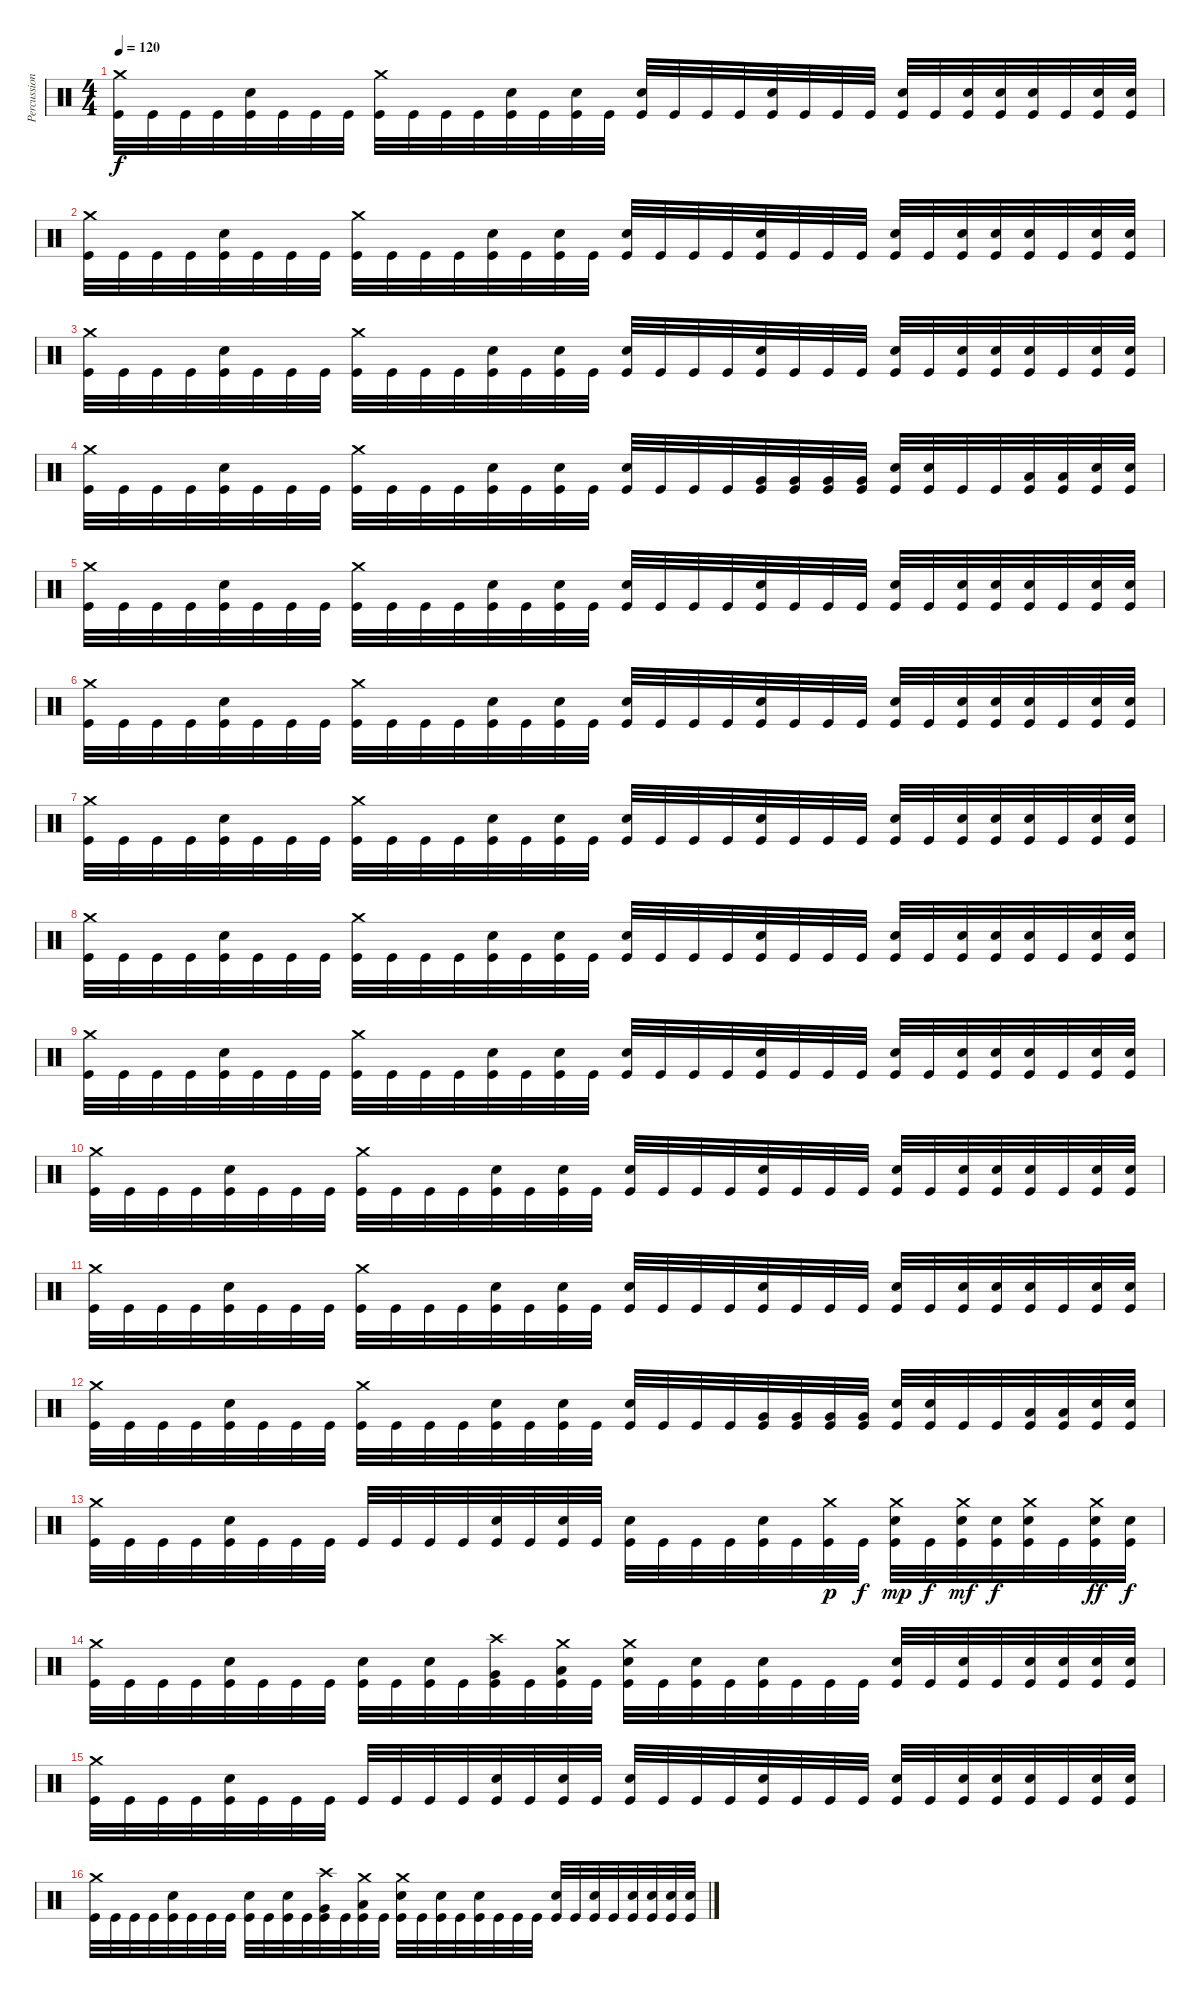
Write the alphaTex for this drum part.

\track ("Percussion" "Percussion") {instrument percussion}
\staff {score}
\articulation defaults
\ts (4 4)
\tempo 120
\clef neutral
\ks c
("Crash medium (hit)" "Kick (hit)").32{dy f} "Kick (hit)".32 "Kick (hit)".32 "Kick (hit)".32 ("Electric Snare (hit)" "Kick (hit)").32 "Kick (hit)".32 "Kick (hit)".32 "Kick (hit)".32 ("Crash medium (hit)" "Kick (hit)").32 "Kick (hit)".32 "Kick (hit)".32 "Kick (hit)".32 ("Electric Snare (hit)" "Kick (hit)").32 "Kick (hit)".32 ("Electric Snare (hit)" "Kick (hit)").32 "Kick (hit)".32 ("Electric Snare (hit)" "Kick (hit)").32 "Kick (hit)".32 "Kick (hit)".32 "Kick (hit)".32 ("Electric Snare (hit)" "Kick (hit)").32 "Kick (hit)".32 "Kick (hit)".32 "Kick (hit)".32 ("Electric Snare (hit)" "Kick (hit)").32 "Kick (hit)".32 ("Electric Snare (hit)" "Kick (hit)").32 ("Electric Snare (hit)" "Kick (hit)").32 ("Electric Snare (hit)" "Kick (hit)").32 "Kick (hit)".32 ("Electric Snare (hit)" "Kick (hit)").32 ("Electric Snare (hit)" "Kick (hit)").32 |
("Crash medium (hit)" "Kick (hit)").32 "Kick (hit)".32 "Kick (hit)".32 "Kick (hit)".32 ("Electric Snare (hit)" "Kick (hit)").32 "Kick (hit)".32 "Kick (hit)".32 "Kick (hit)".32 ("Crash medium (hit)" "Kick (hit)").32 "Kick (hit)".32 "Kick (hit)".32 "Kick (hit)".32 ("Electric Snare (hit)" "Kick (hit)").32 "Kick (hit)".32 ("Electric Snare (hit)" "Kick (hit)").32 "Kick (hit)".32 ("Electric Snare (hit)" "Kick (hit)").32 "Kick (hit)".32 "Kick (hit)".32 "Kick (hit)".32 ("Electric Snare (hit)" "Kick (hit)").32 "Kick (hit)".32 "Kick (hit)".32 "Kick (hit)".32 ("Electric Snare (hit)" "Kick (hit)").32 "Kick (hit)".32 ("Electric Snare (hit)" "Kick (hit)").32 ("Electric Snare (hit)" "Kick (hit)").32 ("Electric Snare (hit)" "Kick (hit)").32 "Kick (hit)".32 ("Electric Snare (hit)" "Kick (hit)").32 ("Electric Snare (hit)" "Kick (hit)").32 |
("Crash medium (hit)" "Kick (hit)").32 "Kick (hit)".32 "Kick (hit)".32 "Kick (hit)".32 ("Electric Snare (hit)" "Kick (hit)").32 "Kick (hit)".32 "Kick (hit)".32 "Kick (hit)".32 ("Crash medium (hit)" "Kick (hit)").32 "Kick (hit)".32 "Kick (hit)".32 "Kick (hit)".32 ("Electric Snare (hit)" "Kick (hit)").32 "Kick (hit)".32 ("Electric Snare (hit)" "Kick (hit)").32 "Kick (hit)".32 ("Electric Snare (hit)" "Kick (hit)").32 "Kick (hit)".32 "Kick (hit)".32 "Kick (hit)".32 ("Electric Snare (hit)" "Kick (hit)").32 "Kick (hit)".32 "Kick (hit)".32 "Kick (hit)".32 ("Electric Snare (hit)" "Kick (hit)").32 "Kick (hit)".32 ("Electric Snare (hit)" "Kick (hit)").32 ("Electric Snare (hit)" "Kick (hit)").32 ("Electric Snare (hit)" "Kick (hit)").32 "Kick (hit)".32 ("Electric Snare (hit)" "Kick (hit)").32 ("Electric Snare (hit)" "Kick (hit)").32 |
("Crash medium (hit)" "Kick (hit)").32 "Kick (hit)".32 "Kick (hit)".32 "Kick (hit)".32 ("Electric Snare (hit)" "Kick (hit)").32 "Kick (hit)".32 "Kick (hit)".32 "Kick (hit)".32 ("Crash medium (hit)" "Kick (hit)").32 "Kick (hit)".32 "Kick (hit)".32 "Kick (hit)".32 ("Electric Snare (hit)" "Kick (hit)").32 "Kick (hit)".32 ("Electric Snare (hit)" "Kick (hit)").32 "Kick (hit)".32 ("Electric Snare (hit)" "Kick (hit)").32 "Kick (hit)".32 "Kick (hit)".32 "Kick (hit)".32 ("Very Low Tom (hit)" "Kick (hit)").32 ("Very Low Tom (hit)" "Kick (hit)").32 ("Very Low Tom (hit)" "Kick (hit)").32 ("Very Low Tom (hit)" "Kick (hit)").32 ("Snare (hit) 2" "Kick (hit)").32 ("Snare (hit) 2" "Kick (hit)").32 "Kick (hit)".32 "Kick (hit)".32 ("Low Floor Tom (hit)" "Kick (hit)").32 ("Low Floor Tom (hit)" "Kick (hit)").32 ("Electric Snare (hit)" "Kick (hit)").32 ("Electric Snare (hit)" "Kick (hit)").32 |
("Crash medium (hit)" "Kick (hit)").32 "Kick (hit)".32 "Kick (hit)".32 "Kick (hit)".32 ("Electric Snare (hit)" "Kick (hit)").32 "Kick (hit)".32 "Kick (hit)".32 "Kick (hit)".32 ("Crash medium (hit)" "Kick (hit)").32 "Kick (hit)".32 "Kick (hit)".32 "Kick (hit)".32 ("Electric Snare (hit)" "Kick (hit)").32 "Kick (hit)".32 ("Electric Snare (hit)" "Kick (hit)").32 "Kick (hit)".32 ("Electric Snare (hit)" "Kick (hit)").32 "Kick (hit)".32 "Kick (hit)".32 "Kick (hit)".32 ("Electric Snare (hit)" "Kick (hit)").32 "Kick (hit)".32 "Kick (hit)".32 "Kick (hit)".32 ("Electric Snare (hit)" "Kick (hit)").32 "Kick (hit)".32 ("Electric Snare (hit)" "Kick (hit)").32 ("Electric Snare (hit)" "Kick (hit)").32 ("Electric Snare (hit)" "Kick (hit)").32 "Kick (hit)".32 ("Electric Snare (hit)" "Kick (hit)").32 ("Electric Snare (hit)" "Kick (hit)").32 |
("Crash medium (hit)" "Kick (hit)").32 "Kick (hit)".32 "Kick (hit)".32 "Kick (hit)".32 ("Electric Snare (hit)" "Kick (hit)").32 "Kick (hit)".32 "Kick (hit)".32 "Kick (hit)".32 ("Crash medium (hit)" "Kick (hit)").32 "Kick (hit)".32 "Kick (hit)".32 "Kick (hit)".32 ("Electric Snare (hit)" "Kick (hit)").32 "Kick (hit)".32 ("Electric Snare (hit)" "Kick (hit)").32 "Kick (hit)".32 ("Electric Snare (hit)" "Kick (hit)").32 "Kick (hit)".32 "Kick (hit)".32 "Kick (hit)".32 ("Electric Snare (hit)" "Kick (hit)").32 "Kick (hit)".32 "Kick (hit)".32 "Kick (hit)".32 ("Electric Snare (hit)" "Kick (hit)").32 "Kick (hit)".32 ("Electric Snare (hit)" "Kick (hit)").32 ("Electric Snare (hit)" "Kick (hit)").32 ("Electric Snare (hit)" "Kick (hit)").32 "Kick (hit)".32 ("Electric Snare (hit)" "Kick (hit)").32 ("Electric Snare (hit)" "Kick (hit)").32 |
("Crash medium (hit)" "Kick (hit)").32 "Kick (hit)".32 "Kick (hit)".32 "Kick (hit)".32 ("Electric Snare (hit)" "Kick (hit)").32 "Kick (hit)".32 "Kick (hit)".32 "Kick (hit)".32 ("Crash medium (hit)" "Kick (hit)").32 "Kick (hit)".32 "Kick (hit)".32 "Kick (hit)".32 ("Electric Snare (hit)" "Kick (hit)").32 "Kick (hit)".32 ("Electric Snare (hit)" "Kick (hit)").32 "Kick (hit)".32 ("Electric Snare (hit)" "Kick (hit)").32 "Kick (hit)".32 "Kick (hit)".32 "Kick (hit)".32 ("Electric Snare (hit)" "Kick (hit)").32 "Kick (hit)".32 "Kick (hit)".32 "Kick (hit)".32 ("Electric Snare (hit)" "Kick (hit)").32 "Kick (hit)".32 ("Electric Snare (hit)" "Kick (hit)").32 ("Electric Snare (hit)" "Kick (hit)").32 ("Electric Snare (hit)" "Kick (hit)").32 "Kick (hit)".32 ("Electric Snare (hit)" "Kick (hit)").32 ("Electric Snare (hit)" "Kick (hit)").32 |
("Crash medium (hit)" "Kick (hit)").32 "Kick (hit)".32 "Kick (hit)".32 "Kick (hit)".32 ("Electric Snare (hit)" "Kick (hit)").32 "Kick (hit)".32 "Kick (hit)".32 "Kick (hit)".32 ("Crash medium (hit)" "Kick (hit)").32 "Kick (hit)".32 "Kick (hit)".32 "Kick (hit)".32 ("Electric Snare (hit)" "Kick (hit)").32 "Kick (hit)".32 ("Electric Snare (hit)" "Kick (hit)").32 "Kick (hit)".32 ("Electric Snare (hit)" "Kick (hit)").32 "Kick (hit)".32 "Kick (hit)".32 "Kick (hit)".32 ("Electric Snare (hit)" "Kick (hit)").32 "Kick (hit)".32 "Kick (hit)".32 "Kick (hit)".32 ("Electric Snare (hit)" "Kick (hit)").32 "Kick (hit)".32 ("Electric Snare (hit)" "Kick (hit)").32 ("Electric Snare (hit)" "Kick (hit)").32 ("Electric Snare (hit)" "Kick (hit)").32 "Kick (hit)".32 ("Electric Snare (hit)" "Kick (hit)").32 ("Electric Snare (hit)" "Kick (hit)").32 |
("Crash medium (hit)" "Kick (hit)").32 "Kick (hit)".32 "Kick (hit)".32 "Kick (hit)".32 ("Electric Snare (hit)" "Kick (hit)").32 "Kick (hit)".32 "Kick (hit)".32 "Kick (hit)".32 ("Crash medium (hit)" "Kick (hit)").32 "Kick (hit)".32 "Kick (hit)".32 "Kick (hit)".32 ("Electric Snare (hit)" "Kick (hit)").32 "Kick (hit)".32 ("Electric Snare (hit)" "Kick (hit)").32 "Kick (hit)".32 ("Electric Snare (hit)" "Kick (hit)").32 "Kick (hit)".32 "Kick (hit)".32 "Kick (hit)".32 ("Electric Snare (hit)" "Kick (hit)").32 "Kick (hit)".32 "Kick (hit)".32 "Kick (hit)".32 ("Electric Snare (hit)" "Kick (hit)").32 "Kick (hit)".32 ("Electric Snare (hit)" "Kick (hit)").32 ("Electric Snare (hit)" "Kick (hit)").32 ("Electric Snare (hit)" "Kick (hit)").32 "Kick (hit)".32 ("Electric Snare (hit)" "Kick (hit)").32 ("Electric Snare (hit)" "Kick (hit)").32 |
("Crash medium (hit)" "Kick (hit)").32 "Kick (hit)".32 "Kick (hit)".32 "Kick (hit)".32 ("Electric Snare (hit)" "Kick (hit)").32 "Kick (hit)".32 "Kick (hit)".32 "Kick (hit)".32 ("Crash medium (hit)" "Kick (hit)").32 "Kick (hit)".32 "Kick (hit)".32 "Kick (hit)".32 ("Electric Snare (hit)" "Kick (hit)").32 "Kick (hit)".32 ("Electric Snare (hit)" "Kick (hit)").32 "Kick (hit)".32 ("Electric Snare (hit)" "Kick (hit)").32 "Kick (hit)".32 "Kick (hit)".32 "Kick (hit)".32 ("Electric Snare (hit)" "Kick (hit)").32 "Kick (hit)".32 "Kick (hit)".32 "Kick (hit)".32 ("Electric Snare (hit)" "Kick (hit)").32 "Kick (hit)".32 ("Electric Snare (hit)" "Kick (hit)").32 ("Electric Snare (hit)" "Kick (hit)").32 ("Electric Snare (hit)" "Kick (hit)").32 "Kick (hit)".32 ("Electric Snare (hit)" "Kick (hit)").32 ("Electric Snare (hit)" "Kick (hit)").32 |
("Crash medium (hit)" "Kick (hit)").32 "Kick (hit)".32 "Kick (hit)".32 "Kick (hit)".32 ("Electric Snare (hit)" "Kick (hit)").32 "Kick (hit)".32 "Kick (hit)".32 "Kick (hit)".32 ("Crash medium (hit)" "Kick (hit)").32 "Kick (hit)".32 "Kick (hit)".32 "Kick (hit)".32 ("Electric Snare (hit)" "Kick (hit)").32 "Kick (hit)".32 ("Electric Snare (hit)" "Kick (hit)").32 "Kick (hit)".32 ("Electric Snare (hit)" "Kick (hit)").32 "Kick (hit)".32 "Kick (hit)".32 "Kick (hit)".32 ("Electric Snare (hit)" "Kick (hit)").32 "Kick (hit)".32 "Kick (hit)".32 "Kick (hit)".32 ("Electric Snare (hit)" "Kick (hit)").32 "Kick (hit)".32 ("Electric Snare (hit)" "Kick (hit)").32 ("Electric Snare (hit)" "Kick (hit)").32 ("Electric Snare (hit)" "Kick (hit)").32 "Kick (hit)".32 ("Electric Snare (hit)" "Kick (hit)").32 ("Electric Snare (hit)" "Kick (hit)").32 |
("Crash medium (hit)" "Kick (hit)").32 "Kick (hit)".32 "Kick (hit)".32 "Kick (hit)".32 ("Electric Snare (hit)" "Kick (hit)").32 "Kick (hit)".32 "Kick (hit)".32 "Kick (hit)".32 ("Crash medium (hit)" "Kick (hit)").32 "Kick (hit)".32 "Kick (hit)".32 "Kick (hit)".32 ("Electric Snare (hit)" "Kick (hit)").32 "Kick (hit)".32 ("Electric Snare (hit)" "Kick (hit)").32 "Kick (hit)".32 ("Electric Snare (hit)" "Kick (hit)").32 "Kick (hit)".32 "Kick (hit)".32 "Kick (hit)".32 ("Very Low Tom (hit)" "Kick (hit)").32 ("Very Low Tom (hit)" "Kick (hit)").32 ("Very Low Tom (hit)" "Kick (hit)").32 ("Very Low Tom (hit)" "Kick (hit)").32 ("Snare (hit) 2" "Kick (hit)").32 ("Snare (hit) 2" "Kick (hit)").32 "Kick (hit)".32 "Kick (hit)".32 ("Low Floor Tom (hit)" "Kick (hit)").32 ("Low Floor Tom (hit)" "Kick (hit)").32 ("Electric Snare (hit)" "Kick (hit)").32 ("Electric Snare (hit)" "Kick (hit)").32 |
("Crash medium (hit)" "Kick (hit)").32 "Kick (hit)".32 "Kick (hit)".32 "Kick (hit)".32 ("Electric Snare (hit)" "Kick (hit)").32 "Kick (hit)".32 "Kick (hit)".32 "Kick (hit)".32 "Kick (hit)".32 "Kick (hit)".32 "Kick (hit)".32 "Kick (hit)".32 ("Electric Snare (hit)" "Kick (hit)").32 "Kick (hit)".32 ("Electric Snare (hit)" "Kick (hit)").32 "Kick (hit)".32 ("Electric Snare (hit)" "Kick (hit)").32 "Kick (hit)".32 "Kick (hit)".32 "Kick (hit)".32 ("Electric Snare (hit)" "Kick (hit)").32 "Kick (hit)".32 ("Crash medium (hit)" "Kick (hit)").32{dy p} "Kick (hit)".32{dy f} ("Crash medium (hit)" "Electric Snare (hit)" "Kick (hit)").32{dy mp} "Kick (hit)".32{dy f} ("Crash medium (hit)" "Electric Snare (hit)" "Kick (hit)").32{dy mf} ("Electric Snare (hit)" "Kick (hit)").32{dy f} ("Crash medium (hit)" "Electric Snare (hit)" "Kick (hit)").32 "Kick (hit)".32 ("Crash medium (hit)" "Electric Snare (hit)" "Kick (hit)").32{dy ff} ("Electric Snare (hit)" "Kick (hit)").32{dy f} |
("Crash medium (hit)" "Kick (hit)").32 "Kick (hit)".32 "Kick (hit)".32 "Kick (hit)".32 ("Electric Snare (hit)" "Kick (hit)").32 "Kick (hit)".32 "Kick (hit)".32 "Kick (hit)".32 ("Electric Snare (hit)" "Kick (hit)").32 "Kick (hit)".32 ("Electric Snare (hit)" "Kick (hit)").32 "Kick (hit)".32 ("Crash high (hit)" "Very Low Tom (hit)" "Kick (hit)").32 "Kick (hit)".32 ("Crash medium (hit)" "Low Floor Tom (hit)" "Kick (hit)").32 "Kick (hit)".32 ("Crash medium (hit)" "Electric Snare (hit)" "Kick (hit)").32 "Kick (hit)".32 ("Electric Snare (hit)" "Kick (hit)").32 "Kick (hit)".32 ("Electric Snare (hit)" "Kick (hit)").32 "Kick (hit)".32 "Kick (hit)".32 "Kick (hit)".32 ("Electric Snare (hit)" "Kick (hit)").32 "Kick (hit)".32 ("Electric Snare (hit)" "Kick (hit)").32 "Kick (hit)".32 ("Electric Snare (hit)" "Kick (hit)").32 ("Electric Snare (hit)" "Kick (hit)").32 ("Electric Snare (hit)" "Kick (hit)").32 ("Electric Snare (hit)" "Kick (hit)").32 |
("Crash medium (hit)" "Kick (hit)").32 "Kick (hit)".32 "Kick (hit)".32 "Kick (hit)".32 ("Electric Snare (hit)" "Kick (hit)").32 "Kick (hit)".32 "Kick (hit)".32 "Kick (hit)".32 "Kick (hit)".32 "Kick (hit)".32 "Kick (hit)".32 "Kick (hit)".32 ("Electric Snare (hit)" "Kick (hit)").32 "Kick (hit)".32 ("Electric Snare (hit)" "Kick (hit)").32 "Kick (hit)".32 ("Electric Snare (hit)" "Kick (hit)").32 "Kick (hit)".32 "Kick (hit)".32 "Kick (hit)".32 ("Electric Snare (hit)" "Kick (hit)").32 "Kick (hit)".32 "Kick (hit)".32 "Kick (hit)".32 ("Electric Snare (hit)" "Kick (hit)").32 "Kick (hit)".32 ("Electric Snare (hit)" "Kick (hit)").32 ("Electric Snare (hit)" "Kick (hit)").32 ("Electric Snare (hit)" "Kick (hit)").32 "Kick (hit)".32 ("Electric Snare (hit)" "Kick (hit)").32 ("Electric Snare (hit)" "Kick (hit)").32 |
("Crash medium (hit)" "Kick (hit)").32 "Kick (hit)".32 "Kick (hit)".32 "Kick (hit)".32 ("Electric Snare (hit)" "Kick (hit)").32 "Kick (hit)".32 "Kick (hit)".32 "Kick (hit)".32 ("Electric Snare (hit)" "Kick (hit)").32 "Kick (hit)".32 ("Electric Snare (hit)" "Kick (hit)").32 "Kick (hit)".32 ("Crash high (hit)" "Very Low Tom (hit)" "Kick (hit)").32 "Kick (hit)".32 ("Crash medium (hit)" "Low Floor Tom (hit)" "Kick (hit)").32 "Kick (hit)".32 ("Crash medium (hit)" "Electric Snare (hit)" "Kick (hit)").32 "Kick (hit)".32 ("Electric Snare (hit)" "Kick (hit)").32 "Kick (hit)".32 ("Electric Snare (hit)" "Kick (hit)").32 "Kick (hit)".32 "Kick (hit)".32 "Kick (hit)".32 ("Electric Snare (hit)" "Kick (hit)").32 "Kick (hit)".32 ("Electric Snare (hit)" "Kick (hit)").32 "Kick (hit)".32 ("Electric Snare (hit)" "Kick (hit)").32 ("Electric Snare (hit)" "Kick (hit)").32 ("Electric Snare (hit)" "Kick (hit)").32 ("Electric Snare (hit)" "Kick (hit)").32
